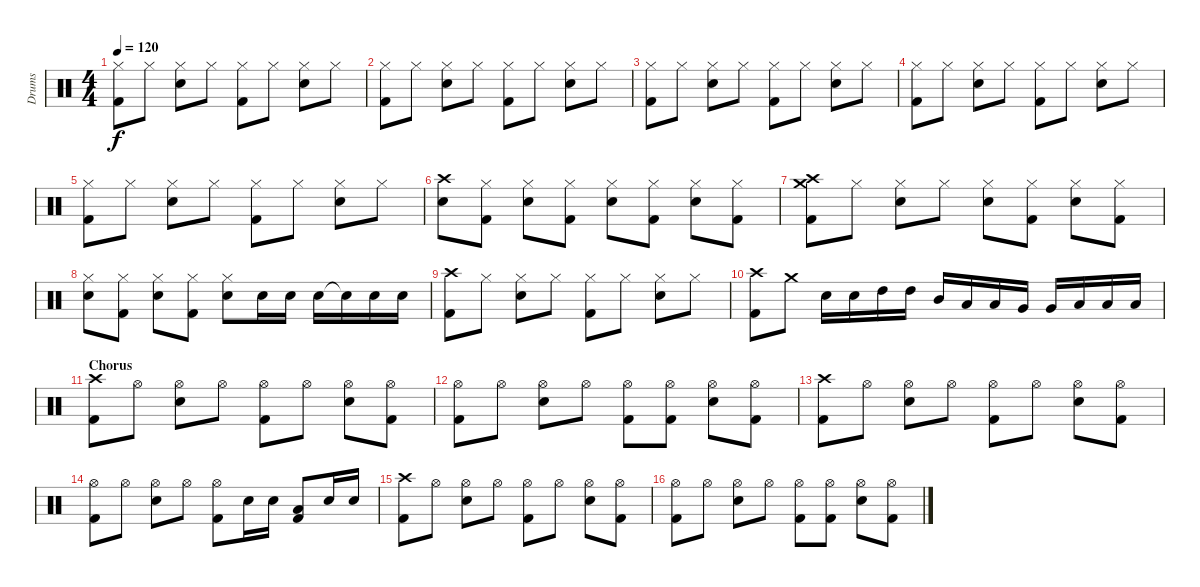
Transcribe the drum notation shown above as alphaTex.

\track ("Drums" "Drums") {instrument percussion}
\staff {score}
\articulation defaults
\ts (4 4)
\tempo 120
\clef neutral
\ks c
("Hi-Hat (closed)" "Kick (hit) 2").8{dy f} "Hi-Hat (closed)".8 ("Hi-Hat (closed)" "Snare (hit) 2").8 "Hi-Hat (closed)".8 ("Hi-Hat (closed)" "Kick (hit) 2").8 "Hi-Hat (closed)".8 ("Hi-Hat (closed)" "Snare (hit) 2").8 "Hi-Hat (closed)".8 |
("Hi-Hat (closed)" "Kick (hit) 2").8 "Hi-Hat (closed)".8 ("Hi-Hat (closed)" "Snare (hit) 2").8 "Hi-Hat (closed)".8 ("Hi-Hat (closed)" "Kick (hit) 2").8 "Hi-Hat (closed)".8 ("Hi-Hat (closed)" "Snare (hit) 2").8 "Hi-Hat (closed)".8 |
("Hi-Hat (closed)" "Kick (hit) 2").8 "Hi-Hat (closed)".8 ("Hi-Hat (closed)" "Snare (hit) 2").8 "Hi-Hat (closed)".8 ("Hi-Hat (closed)" "Kick (hit) 2").8 "Hi-Hat (closed)".8 ("Hi-Hat (closed)" "Snare (hit) 2").8 "Hi-Hat (closed)".8 |
("Hi-Hat (closed)" "Kick (hit) 2").8 "Hi-Hat (closed)".8 ("Hi-Hat (closed)" "Snare (hit) 2").8 "Hi-Hat (closed)".8 ("Hi-Hat (closed)" "Kick (hit) 2").8 "Hi-Hat (closed)".8 ("Hi-Hat (closed)" "Snare (hit) 2").8 "Hi-Hat (closed)".8 |
("Hi-Hat (closed)" "Kick (hit) 2").8 "Hi-Hat (closed)".8 ("Hi-Hat (closed)" "Snare (hit) 2").8 "Hi-Hat (closed)".8 ("Hi-Hat (closed)" "Kick (hit) 2").8 "Hi-Hat (closed)".8 ("Hi-Hat (closed)" "Snare (hit) 2").8 "Hi-Hat (closed)".8 |
("Crash high (hit)" "Snare (hit) 2").8 ("Hi-Hat (closed)" "Kick (hit) 2").8 ("Hi-Hat (closed)" "Snare (hit) 2").8 ("Hi-Hat (closed)" "Kick (hit) 2").8 ("Hi-Hat (closed)" "Snare (hit) 2").8 ("Hi-Hat (closed)" "Kick (hit) 2").8 ("Hi-Hat (closed)" "Snare (hit) 2").8 ("Hi-Hat (closed)" "Kick (hit) 2").8 |
("Crash high (hit)" "Kick (hit) 2" "Crash medium (hit)").8 "Hi-Hat (closed)".8 ("Hi-Hat (closed)" "Snare (hit) 2").8 "Hi-Hat (closed)".8 ("Hi-Hat (closed)" "Snare (hit) 2").8 ("Hi-Hat (closed)" "Kick (hit) 2").8 ("Hi-Hat (closed)" "Snare (hit) 2").8 ("Hi-Hat (closed)" "Kick (hit) 2").8 |
("Hi-Hat (closed)" "Snare (hit) 2").8 ("Hi-Hat (closed)" "Kick (hit) 2").8 ("Hi-Hat (closed)" "Snare (hit) 2").8 ("Hi-Hat (closed)" "Kick (hit) 2").8 ("Hi-Hat (closed)" "Snare (hit) 2").8 "Snare (hit) 2".16 "Snare (hit) 2".16 "Snare (hit) 2".16 "Snare (hit) 2"{t}.16 "Snare (hit) 2".16 "Snare (hit) 2".16 |
("Crash high (hit)" "Kick (hit) 2").8 "Hi-Hat (closed)".8 ("Hi-Hat (closed)" "Snare (hit) 2").8 "Hi-Hat (closed)".8 ("Hi-Hat (closed)" "Kick (hit) 2").8 "Hi-Hat (closed)".8 ("Hi-Hat (closed)" "Snare (hit) 2").8 "Hi-Hat (closed)".8 |
("Crash high (hit)" "Kick (hit) 2").8 "Crash medium (hit)".8 "Snare (hit) 2".16 "Snare (hit) 2".16 "High Tom (hit)".16 "High Tom (hit)".16 "Mid Tom (hit)".16 "Low Tom (hit)".16 "Low Tom (hit)".16 "Very Low Tom (hit)".16 "Very Low Tom (hit)".16 "Low Floor Tom (hit)".16 "Low Floor Tom (hit)".16 "Low Floor Tom (hit)".16 |
\section ("" "Chorus")
("Crash high (hit)" "Kick (hit) 2").8 "Hi-Hat (open)".8 ("Hi-Hat (open)" "Snare (hit) 2").8 "Hi-Hat (open)".8 ("Hi-Hat (open)" "Kick (hit) 2").8 "Hi-Hat (open)".8 ("Hi-Hat (open)" "Snare (hit) 2").8 ("Hi-Hat (open)" "Kick (hit) 2").8 |
("Hi-Hat (open)" "Kick (hit) 2").8 "Hi-Hat (open)".8 ("Hi-Hat (open)" "Snare (hit) 2").8 "Hi-Hat (open)".8 ("Hi-Hat (open)" "Kick (hit) 2").8 ("Hi-Hat (open)" "Kick (hit) 2").8 ("Hi-Hat (open)" "Snare (hit) 2").8 ("Hi-Hat (open)" "Kick (hit) 2").8 |
("Crash high (hit)" "Kick (hit) 2").8 "Hi-Hat (open)".8 ("Hi-Hat (open)" "Snare (hit) 2").8 "Hi-Hat (open)".8 ("Hi-Hat (open)" "Kick (hit) 2").8 "Hi-Hat (open)".8 ("Hi-Hat (open)" "Snare (hit) 2").8 ("Hi-Hat (open)" "Kick (hit) 2").8 |
("Hi-Hat (open)" "Kick (hit) 2").8 "Hi-Hat (open)".8 ("Hi-Hat (open)" "Snare (hit) 2").8 "Hi-Hat (open)".8 ("Hi-Hat (open)" "Kick (hit) 2").8 "Snare (hit) 2".16 "Snare (hit) 2".16 ("Low Tom (hit)" "Kick (hit) 2").8 "Snare (hit) 2".16 "Snare (hit) 2".16 |
("Crash high (hit)" "Kick (hit) 2").8 "Hi-Hat (open)".8 ("Hi-Hat (open)" "Snare (hit) 2").8 "Hi-Hat (open)".8 ("Hi-Hat (open)" "Kick (hit) 2").8 "Hi-Hat (open)".8 ("Hi-Hat (open)" "Snare (hit) 2").8 ("Hi-Hat (open)" "Kick (hit) 2").8 |
("Hi-Hat (open)" "Kick (hit) 2").8 "Hi-Hat (open)".8 ("Hi-Hat (open)" "Snare (hit) 2").8 "Hi-Hat (open)".8 ("Hi-Hat (open)" "Kick (hit) 2").8 ("Hi-Hat (open)" "Kick (hit) 2").8 ("Hi-Hat (open)" "Snare (hit) 2").8 ("Hi-Hat (open)" "Kick (hit) 2").8
